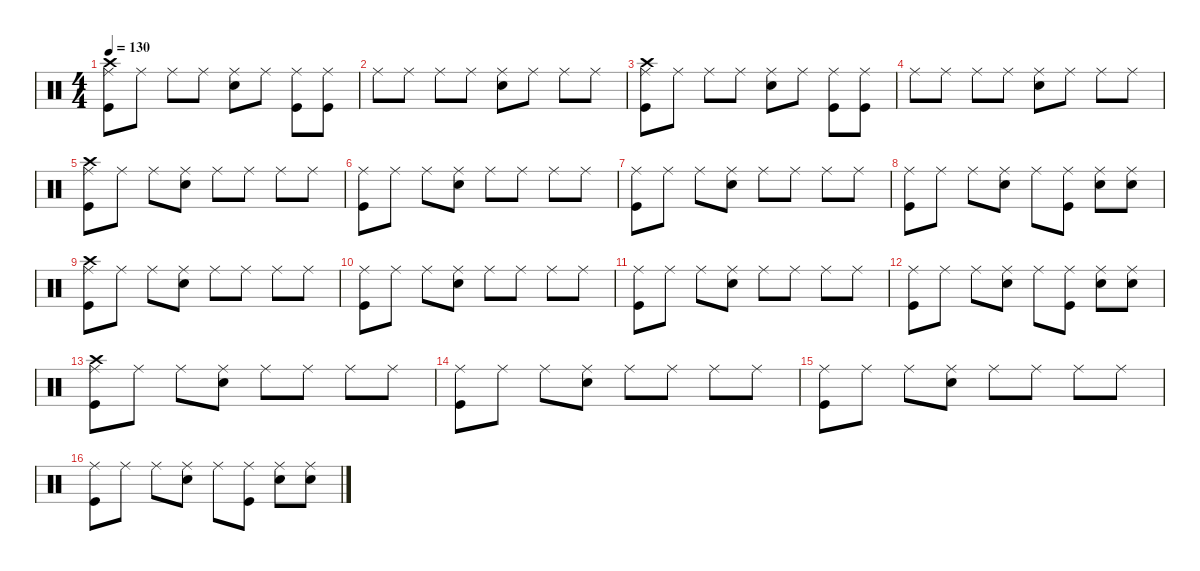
\defaultSystemsLayout 4
\hideDynamics
\bracketExtendMode nobrackets
\singleTrackTrackNamePolicy hidden
\multiTrackTrackNamePolicy hidden
\firstSystemTrackNameMode fullname
\firstSystemTrackNameOrientation horizontal
\otherSystemsTrackNameOrientation horizontal
\track ("Percussion" "drm.") {instrument percussion}
\staff {score}
\articulation defaults
\ts (4 4)
\tempo 130
\clef neutral
\ks c
("Crash high (hit)" "Ride (middle)" "Kick (hit)").8{dy f beam Down} "Ride (middle)".8{beam Down} "Ride (middle)".8{beam Down} "Ride (middle)".8{beam Down} ("Ride (middle)" "Snare (hit) 2").8{beam Down} "Ride (middle)".8{beam Down} ("Ride (middle)" "Kick (hit)").8{beam Down} ("Ride (middle)" "Kick (hit)").8{beam Down} |
"Ride (middle)".8{beam Down} "Ride (middle)".8{beam Down} "Ride (middle)".8{beam Down} "Ride (middle)".8{beam Down} ("Ride (middle)" "Snare (hit) 2").8{beam Down} "Ride (middle)".8{beam Down} "Ride (middle)".8{beam Down} "Ride (middle)".8{beam Down} |
("Crash high (hit)" "Ride (middle)" "Kick (hit)").8{beam Down} "Ride (middle)".8{beam Down} "Ride (middle)".8{beam Down} "Ride (middle)".8{beam Down} ("Ride (middle)" "Snare (hit) 2").8{beam Down} "Ride (middle)".8{beam Down} ("Ride (middle)" "Kick (hit)").8{beam Down} ("Ride (middle)" "Kick (hit)").8{beam Down} |
"Ride (middle)".8{beam Down} "Ride (middle)".8{beam Down} "Ride (middle)".8{beam Down} "Ride (middle)".8{beam Down} ("Ride (middle)" "Snare (hit) 2").8{beam Down} "Ride (middle)".8{beam Down} "Ride (middle)".8{beam Down} "Ride (middle)".8{beam Down} |
("Crash high (hit)" "Ride (middle)" "Kick (hit)").8{beam Down} "Ride (middle)".8{beam Down} "Ride (middle)".8{beam Down} ("Ride (middle)" "Snare (hit) 2").8{beam Down} "Ride (middle)".8{beam Down} "Ride (middle)".8{beam Down} "Ride (middle)".8{beam Down} "Ride (middle)".8{beam Down} |
("Ride (middle)" "Kick (hit)").8{beam Down} "Ride (middle)".8{beam Down} "Ride (middle)".8{beam Down} ("Ride (middle)" "Snare (hit) 2").8{beam Down} "Ride (middle)".8{beam Down} "Ride (middle)".8{beam Down} "Ride (middle)".8{beam Down} "Ride (middle)".8{beam Down} |
("Ride (middle)" "Kick (hit)").8{beam Down} "Ride (middle)".8{beam Down} "Ride (middle)".8{beam Down} ("Ride (middle)" "Snare (hit) 2").8{beam Down} "Ride (middle)".8{beam Down} "Ride (middle)".8{beam Down} "Ride (middle)".8{beam Down} "Ride (middle)".8{beam Down} |
("Ride (middle)" "Kick (hit)").8{beam Down} "Ride (middle)".8{beam Down} "Ride (middle)".8{beam Down} ("Ride (middle)" "Snare (hit) 2").8{beam Down} "Ride (middle)".8{beam Down} ("Ride (middle)" "Kick (hit)").8{beam Down} ("Ride (middle)" "Snare (hit) 2").8{beam Down} ("Ride (middle)" "Snare (hit) 2").8{beam Down} |
("Crash high (hit)" "Ride (middle)" "Kick (hit)").8{beam Down} "Ride (middle)".8{beam Down} "Ride (middle)".8{beam Down} ("Ride (middle)" "Snare (hit) 2").8{beam Down} "Ride (middle)".8{beam Down} "Ride (middle)".8{beam Down} "Ride (middle)".8{beam Down} "Ride (middle)".8{beam Down} |
("Ride (middle)" "Kick (hit)").8{beam Down} "Ride (middle)".8{beam Down} "Ride (middle)".8{beam Down} ("Ride (middle)" "Snare (hit) 2").8{beam Down} "Ride (middle)".8{beam Down} "Ride (middle)".8{beam Down} "Ride (middle)".8{beam Down} "Ride (middle)".8{beam Down} |
("Ride (middle)" "Kick (hit)").8{beam Down} "Ride (middle)".8{beam Down} "Ride (middle)".8{beam Down} ("Ride (middle)" "Snare (hit) 2").8{beam Down} "Ride (middle)".8{beam Down} "Ride (middle)".8{beam Down} "Ride (middle)".8{beam Down} "Ride (middle)".8{beam Down} |
("Ride (middle)" "Kick (hit)").8{beam Down} "Ride (middle)".8{beam Down} "Ride (middle)".8{beam Down} ("Ride (middle)" "Snare (hit) 2").8{beam Down} "Ride (middle)".8{beam Down} ("Ride (middle)" "Kick (hit)").8{beam Down} ("Ride (middle)" "Snare (hit) 2").8{beam Down} ("Ride (middle)" "Snare (hit) 2").8{beam Down} |
("Crash high (hit)" "Ride (middle)" "Kick (hit)").8{beam Down} "Ride (middle)".8{beam Down} "Ride (middle)".8{beam Down} ("Ride (middle)" "Snare (hit) 2").8{beam Down} "Ride (middle)".8{beam Down} "Ride (middle)".8{beam Down} "Ride (middle)".8{beam Down} "Ride (middle)".8{beam Down} |
("Ride (middle)" "Kick (hit)").8{beam Down} "Ride (middle)".8{beam Down} "Ride (middle)".8{beam Down} ("Ride (middle)" "Snare (hit) 2").8{beam Down} "Ride (middle)".8{beam Down} "Ride (middle)".8{beam Down} "Ride (middle)".8{beam Down} "Ride (middle)".8{beam Down} |
("Ride (middle)" "Kick (hit)").8{beam Down} "Ride (middle)".8{beam Down} "Ride (middle)".8{beam Down} ("Ride (middle)" "Snare (hit) 2").8{beam Down} "Ride (middle)".8{beam Down} "Ride (middle)".8{beam Down} "Ride (middle)".8{beam Down} "Ride (middle)".8{beam Down} |
("Ride (middle)" "Kick (hit)").8{beam Down} "Ride (middle)".8{beam Down} "Ride (middle)".8{beam Down} ("Ride (middle)" "Snare (hit) 2").8{beam Down} "Ride (middle)".8{beam Down} ("Ride (middle)" "Kick (hit)").8{beam Down} ("Ride (middle)" "Snare (hit) 2").8{beam Down} ("Ride (middle)" "Snare (hit) 2").8{beam Down}
